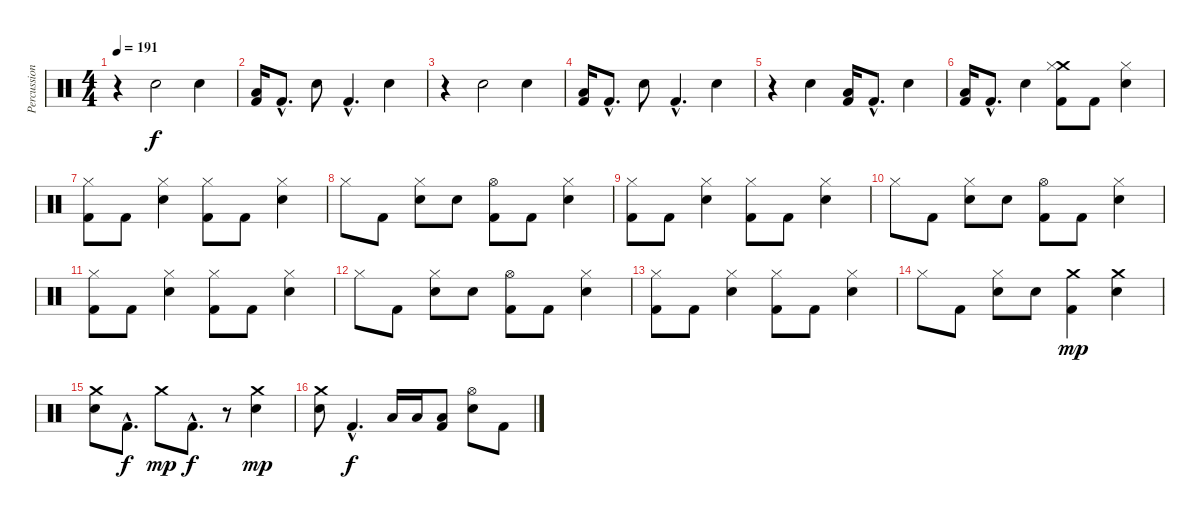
\track ("Percussions" "Percussion") {instrument percussion}
\staff {score}
\articulation defaults
\ts (4 4)
\tempo 191
\clef neutral
\ks c
r.4{dy f} "Snare (hit) 2".2 "Snare (hit) 2".4 |
("Kick (hit) 2" "Low Tom (hit)").16 "Kick (hit) 2"{hac}.8{d} "Snare (hit) 2".8 "Kick (hit) 2"{hac}.4{d} "Snare (hit) 2".4 |
r.4 "Snare (hit) 2".2 "Snare (hit) 2".4 |
("Kick (hit) 2" "Low Tom (hit)").16 "Kick (hit) 2"{hac}.8{d} "Snare (hit) 2".8 "Kick (hit) 2"{hac}.4{d} "Snare (hit) 2".4 |
r.4 "Snare (hit) 2".4 ("Kick (hit) 2" "Low Tom (hit)").16 "Kick (hit) 2"{hac}.8{d} "Snare (hit) 2".4 |
("Kick (hit) 2" "Low Tom (hit)").16 "Kick (hit) 2"{hac}.8{d} "Snare (hit) 2".4 ("Kick (hit) 2" "Crash medium (hit)" "Hi-Hat (closed)").8 "Kick (hit) 2".8 ("Snare (hit) 2" "Hi-Hat (closed)").4 |
("Kick (hit) 2" "Hi-Hat (closed)").8 "Kick (hit) 2".8 ("Snare (hit) 2" "Hi-Hat (closed)").4 ("Kick (hit) 2" "Hi-Hat (closed)").8 "Kick (hit) 2".8 ("Snare (hit) 2" "Hi-Hat (closed)").4 |
"Hi-Hat (closed)".8 "Kick (hit) 2".8 ("Snare (hit) 2" "Hi-Hat (closed)").8 "Snare (hit) 2".8 ("Kick (hit) 2" "Hi-Hat (open)").8 "Kick (hit) 2".8 ("Snare (hit) 2" "Hi-Hat (closed)").4 |
("Kick (hit) 2" "Hi-Hat (closed)").8 "Kick (hit) 2".8 ("Snare (hit) 2" "Hi-Hat (closed)").4 ("Kick (hit) 2" "Hi-Hat (closed)").8 "Kick (hit) 2".8 ("Snare (hit) 2" "Hi-Hat (closed)").4 |
"Hi-Hat (closed)".8 "Kick (hit) 2".8 ("Snare (hit) 2" "Hi-Hat (closed)").8 "Snare (hit) 2".8 ("Kick (hit) 2" "Hi-Hat (open)").8 "Kick (hit) 2".8 ("Snare (hit) 2" "Hi-Hat (closed)").4 |
("Kick (hit) 2" "Hi-Hat (closed)").8 "Kick (hit) 2".8 ("Snare (hit) 2" "Hi-Hat (closed)").4 ("Kick (hit) 2" "Hi-Hat (closed)").8 "Kick (hit) 2".8 ("Snare (hit) 2" "Hi-Hat (closed)").4 |
"Hi-Hat (closed)".8 "Kick (hit) 2".8 ("Snare (hit) 2" "Hi-Hat (closed)").8 "Snare (hit) 2".8 ("Kick (hit) 2" "Hi-Hat (open)").8 "Kick (hit) 2".8 ("Snare (hit) 2" "Hi-Hat (closed)").4 |
("Kick (hit) 2" "Hi-Hat (closed)").8 "Kick (hit) 2".8 ("Snare (hit) 2" "Hi-Hat (closed)").4 ("Kick (hit) 2" "Hi-Hat (closed)").8 "Kick (hit) 2".8 ("Snare (hit) 2" "Hi-Hat (closed)").4 |
"Hi-Hat (closed)".8 "Kick (hit) 2".8 ("Snare (hit) 2" "Hi-Hat (closed)").8 "Snare (hit) 2".8 ("Kick (hit) 2" "Crash medium (hit)").4{dy mp} ("Snare (hit) 2" "Crash medium (hit)").4 |
("Snare (hit) 2" "Crash medium (hit)").8 "Kick (hit) 2"{hac}.8{d dy f} "Crash medium (hit)".8{dy mp} "Kick (hit) 2"{hac}.8{d dy f} r.8 ("Snare (hit) 2" "Crash medium (hit)").4{dy mp} |
("Snare (hit) 2" "Crash medium (hit)").8 "Kick (hit) 2"{hac}.4{d dy f} "Low Tom (hit)".16 "Low Tom (hit)".16 ("Kick (hit) 2" "Low Tom (hit)").8 ("Snare (hit) 2" "Hi-Hat (open)").8 "Kick (hit) 2".8
